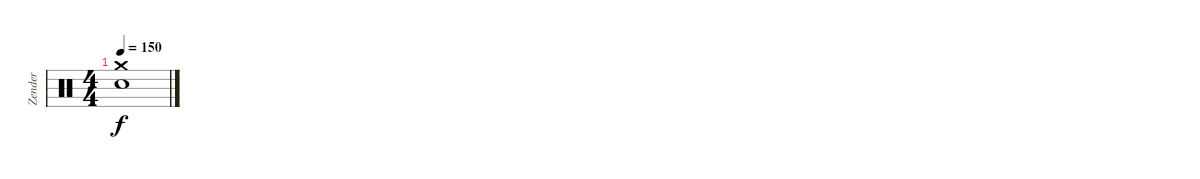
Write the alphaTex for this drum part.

\track ("Zender" "Zender") {instrument percussion}
\staff {score}
\articulation defaults
\ts (4 4)
\tempo 150
\clef neutral
\ks c
("Crash medium (hit)" "Snare (hit) 2").1{dy f}
